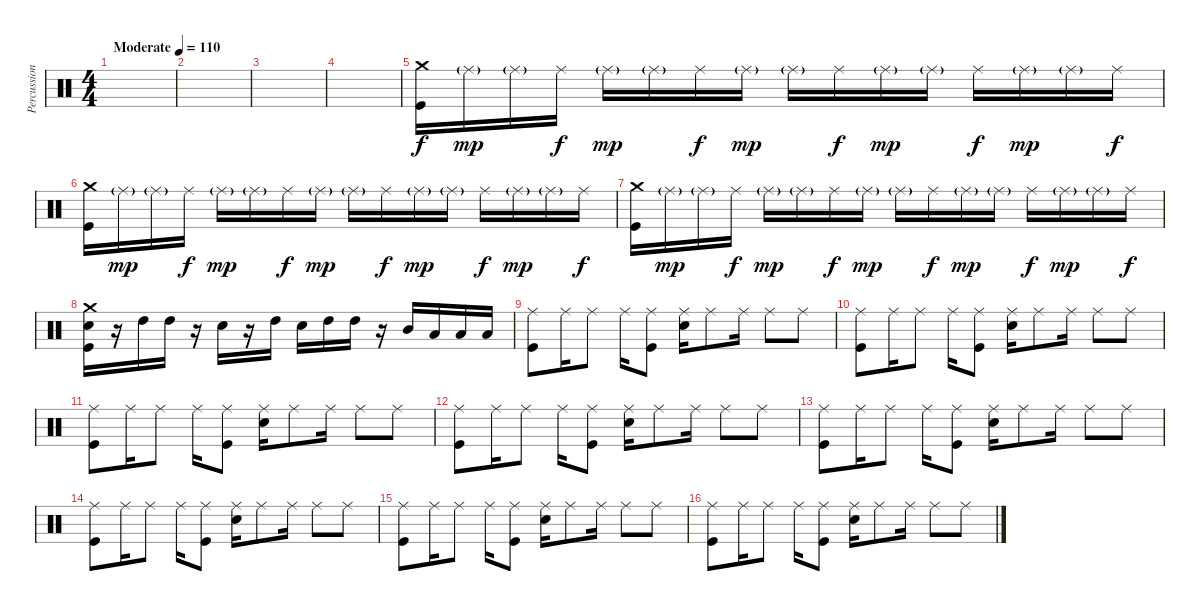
\track ("Percussion" "Percussion") {instrument percussion}
\staff {score}
\articulation defaults
\ts (4 4)
\tempo (110 "Moderate")
\clef neutral
\ks c
|
|
|
|
("Crash medium (hit)" "Kick (hit)").16 "Ride (middle)"{g}.16{dy mp} "Ride (middle)"{g}.16 "Ride (middle)".16{dy f} "Ride (middle)"{g}.16{dy mp} "Ride (middle)"{g}.16 "Ride (middle)".16{dy f} "Ride (middle)"{g}.16{dy mp} "Ride (middle)"{g}.16 "Ride (middle)".16{dy f} "Ride (middle)"{g}.16{dy mp} "Ride (middle)"{g}.16 "Ride (middle)".16{dy f} "Ride (middle)"{g}.16{dy mp} "Ride (middle)"{g}.16 "Ride (middle)".16{dy f} |
("Crash medium (hit)" "Kick (hit)").16 "Ride (middle)"{g}.16{dy mp} "Ride (middle)"{g}.16 "Ride (middle)".16{dy f} "Ride (middle)"{g}.16{dy mp} "Ride (middle)"{g}.16 "Ride (middle)".16{dy f} "Ride (middle)"{g}.16{dy mp} "Ride (middle)"{g}.16 "Ride (middle)".16{dy f} "Ride (middle)"{g}.16{dy mp} "Ride (middle)"{g}.16 "Ride (middle)".16{dy f} "Ride (middle)"{g}.16{dy mp} "Ride (middle)"{g}.16 "Ride (middle)".16{dy f} |
("Crash medium (hit)" "Kick (hit)").16 "Ride (middle)"{g}.16{dy mp} "Ride (middle)"{g}.16 "Ride (middle)".16{dy f} "Ride (middle)"{g}.16{dy mp} "Ride (middle)"{g}.16 "Ride (middle)".16{dy f} "Ride (middle)"{g}.16{dy mp} "Ride (middle)"{g}.16 "Ride (middle)".16{dy f} "Ride (middle)"{g}.16{dy mp} "Ride (middle)"{g}.16 "Ride (middle)".16{dy f} "Ride (middle)"{g}.16{dy mp} "Ride (middle)"{g}.16 "Ride (middle)".16{dy f} |
("Crash medium (hit)" "Snare (hit) 2" "Kick (hit)").16 r.16 "High Tom (hit)".16 "High Tom (hit)".16 r.16 "Snare (hit) 2".16 r.16 "High Tom (hit)".16 "Snare (hit) 2".16 "High Tom (hit)".16 "High Tom (hit)".16 r.16 "Mid Tom (hit)".16 "Low Tom (hit)".16 "Low Tom (hit)".16 "Low Tom (hit)".16 |
("Ride (middle)" "Kick (hit)").8 "Ride (middle)".16 "Ride (middle)".8 "Ride (middle)".16 ("Ride (middle)" "Kick (hit)").8 ("Ride (middle)" "Snare (hit) 2").16 "Ride (middle)".8 "Ride (middle)".16 "Ride (middle)".8 "Ride (middle)".8 |
("Ride (middle)" "Kick (hit)").8 "Ride (middle)".16 "Ride (middle)".8 "Ride (middle)".16 ("Ride (middle)" "Kick (hit)").8 ("Ride (middle)" "Snare (hit) 2").16 "Ride (middle)".8 "Ride (middle)".16 "Ride (middle)".8 "Ride (middle)".8 |
("Ride (middle)" "Kick (hit)").8 "Ride (middle)".16 "Ride (middle)".8 "Ride (middle)".16 ("Ride (middle)" "Kick (hit)").8 ("Ride (middle)" "Snare (hit) 2").16 "Ride (middle)".8 "Ride (middle)".16 "Ride (middle)".8 "Ride (middle)".8 |
("Ride (middle)" "Kick (hit)").8 "Ride (middle)".16 "Ride (middle)".8 "Ride (middle)".16 ("Ride (middle)" "Kick (hit)").8 ("Ride (middle)" "Snare (hit) 2").16 "Ride (middle)".8 "Ride (middle)".16 "Ride (middle)".8 "Ride (middle)".8 |
("Ride (middle)" "Kick (hit)").8 "Ride (middle)".16 "Ride (middle)".8 "Ride (middle)".16 ("Ride (middle)" "Kick (hit)").8 ("Ride (middle)" "Snare (hit) 2").16 "Ride (middle)".8 "Ride (middle)".16 "Ride (middle)".8 "Ride (middle)".8 |
("Ride (middle)" "Kick (hit)").8 "Ride (middle)".16 "Ride (middle)".8 "Ride (middle)".16 ("Ride (middle)" "Kick (hit)").8 ("Ride (middle)" "Snare (hit) 2").16 "Ride (middle)".8 "Ride (middle)".16 "Ride (middle)".8 "Ride (middle)".8 |
("Ride (middle)" "Kick (hit)").8 "Ride (middle)".16 "Ride (middle)".8 "Ride (middle)".16 ("Ride (middle)" "Kick (hit)").8 ("Ride (middle)" "Snare (hit) 2").16 "Ride (middle)".8 "Ride (middle)".16 "Ride (middle)".8 "Ride (middle)".8 |
("Ride (middle)" "Kick (hit)").8 "Ride (middle)".16 "Ride (middle)".8 "Ride (middle)".16 ("Ride (middle)" "Kick (hit)").8 ("Ride (middle)" "Snare (hit) 2").16 "Ride (middle)".8 "Ride (middle)".16 "Ride (middle)".8 "Ride (middle)".8
